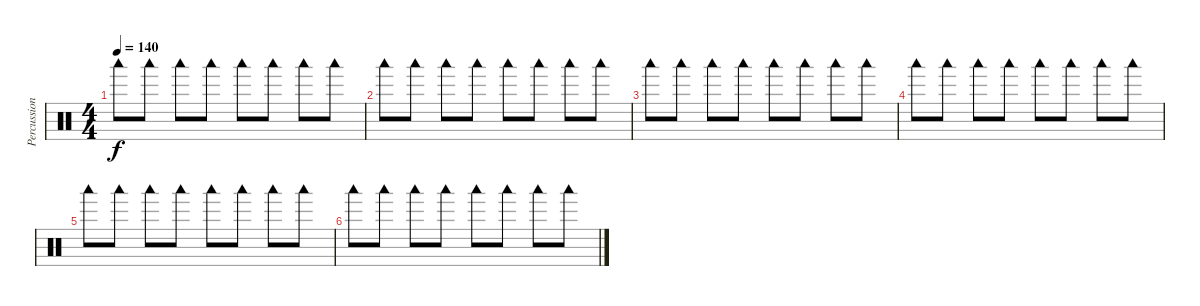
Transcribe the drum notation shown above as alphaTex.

\track ("Percussioni" "Percussion") {mute instrument percussion}
\staff {score}
\articulation defaults
\ts (4 4)
\tempo 140
\clef neutral
\ks c "Woodblock low (hit)".8{dy f} "Woodblock low (hit)".8 "Woodblock low (hit)".8 "Woodblock low (hit)".8 "Woodblock low (hit)".8 "Woodblock low (hit)".8 "Woodblock low (hit)".8 "Woodblock low (hit)".8
|
"Woodblock low (hit)".8 "Woodblock low (hit)".8 "Woodblock low (hit)".8 "Woodblock low (hit)".8 "Woodblock low (hit)".8 "Woodblock low (hit)".8 "Woodblock low (hit)".8 "Woodblock low (hit)".8 |
"Woodblock low (hit)".8 "Woodblock low (hit)".8 "Woodblock low (hit)".8 "Woodblock low (hit)".8 "Woodblock low (hit)".8 "Woodblock low (hit)".8 "Woodblock low (hit)".8 "Woodblock low (hit)".8 |
"Woodblock low (hit)".8 "Woodblock low (hit)".8 "Woodblock low (hit)".8 "Woodblock low (hit)".8 "Woodblock low (hit)".8 "Woodblock low (hit)".8 "Woodblock low (hit)".8 "Woodblock low (hit)".8 |
"Woodblock low (hit)".8 "Woodblock low (hit)".8 "Woodblock low (hit)".8 "Woodblock low (hit)".8 "Woodblock low (hit)".8 "Woodblock low (hit)".8 "Woodblock low (hit)".8 "Woodblock low (hit)".8 |
"Woodblock low (hit)".8 "Woodblock low (hit)".8 "Woodblock low (hit)".8 "Woodblock low (hit)".8 "Woodblock low (hit)".8 "Woodblock low (hit)".8 "Woodblock low (hit)".8 "Woodblock low (hit)".8
